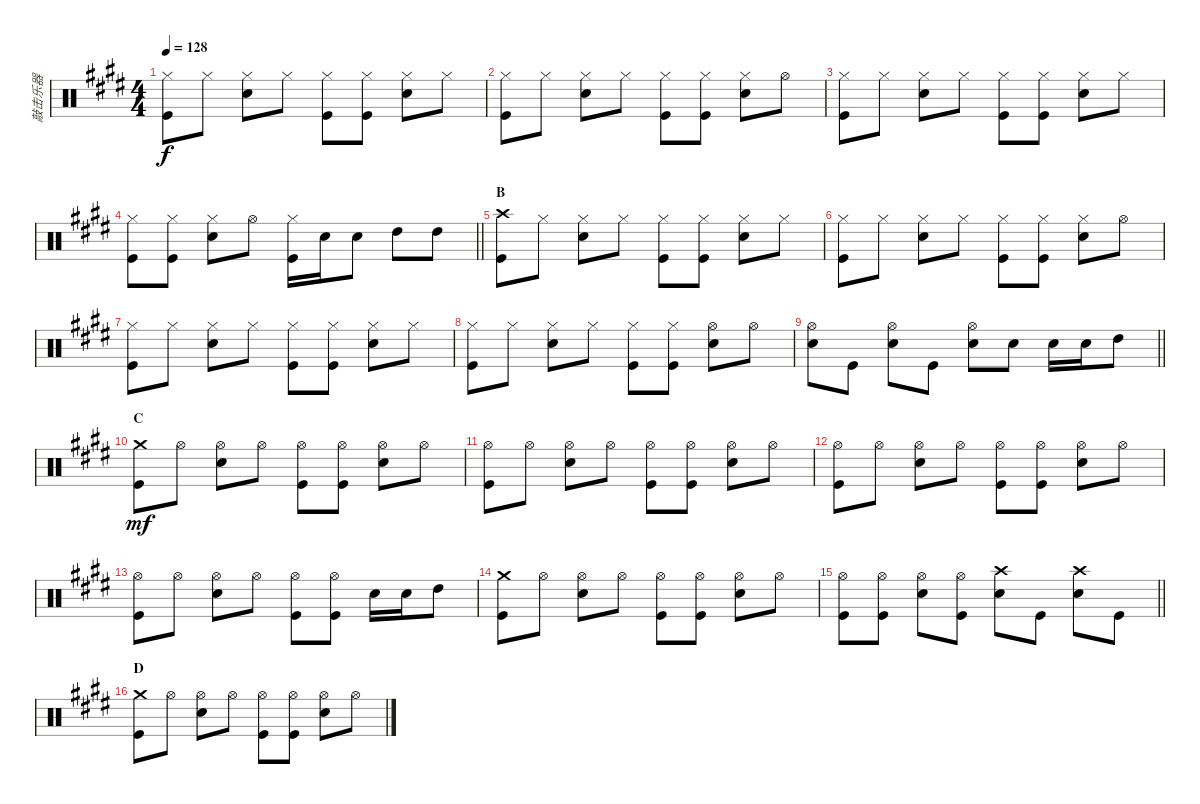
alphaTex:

\track ("敲击乐器" "敲击乐器") {instrument percussion}
\staff {score}
\articulation defaults
\ts (4 4)
\tempo 128
\clef neutral
\ks e
("Hi-Hat (closed)" "Kick (hit)").8{dy f} "Hi-Hat (closed)".8 ("Hi-Hat (closed)" "Snare (hit) 2").8 "Hi-Hat (closed)".8 ("Hi-Hat (closed)" "Kick (hit)").8 ("Hi-Hat (closed)" "Kick (hit)").8 ("Hi-Hat (closed)" "Snare (hit) 2").8 "Hi-Hat (closed)".8 |
("Hi-Hat (closed)" "Kick (hit)").8 "Hi-Hat (closed)".8 ("Hi-Hat (closed)" "Snare (hit) 2").8 "Hi-Hat (closed)".8 ("Hi-Hat (closed)" "Kick (hit)").8 ("Hi-Hat (closed)" "Kick (hit)").8 ("Hi-Hat (closed)" "Snare (hit) 2").8 "Hi-Hat (open)".8 |
("Hi-Hat (closed)" "Kick (hit)").8 "Hi-Hat (closed)".8 ("Hi-Hat (closed)" "Snare (hit) 2").8 "Hi-Hat (closed)".8 ("Hi-Hat (closed)" "Kick (hit)").8 ("Hi-Hat (closed)" "Kick (hit)").8 ("Hi-Hat (closed)" "Snare (hit) 2").8 "Hi-Hat (closed)".8 |
\barLineRight lightlight
("Hi-Hat (closed)" "Kick (hit)").8 ("Hi-Hat (closed)" "Kick (hit)").8 ("Hi-Hat (closed)" "Snare (hit) 2").8 "Hi-Hat (open)".8 ("Hi-Hat (closed)" "Kick (hit)").16 "Snare (hit) 2".16 "Snare (hit) 2".8 "High Tom (hit)".8 "High Tom (hit)".8 |
\section ("" "B")
("Crash high (hit)" "Kick (hit)").8 "Hi-Hat (closed)".8 ("Hi-Hat (closed)" "Snare (hit) 2").8 "Hi-Hat (closed)".8 ("Hi-Hat (closed)" "Kick (hit)").8 ("Hi-Hat (closed)" "Kick (hit)").8 ("Hi-Hat (closed)" "Snare (hit) 2").8 "Hi-Hat (closed)".8 |
("Hi-Hat (closed)" "Kick (hit)").8 "Hi-Hat (closed)".8 ("Hi-Hat (closed)" "Snare (hit) 2").8 "Hi-Hat (closed)".8 ("Hi-Hat (closed)" "Kick (hit)").8 ("Hi-Hat (closed)" "Kick (hit)").8 ("Hi-Hat (closed)" "Snare (hit) 2").8 "Hi-Hat (open)".8 |
("Hi-Hat (closed)" "Kick (hit)").8 "Hi-Hat (closed)".8 ("Hi-Hat (closed)" "Snare (hit) 2").8 "Hi-Hat (closed)".8 ("Hi-Hat (closed)" "Kick (hit)").8 ("Hi-Hat (closed)" "Kick (hit)").8 ("Hi-Hat (closed)" "Snare (hit) 2").8 "Hi-Hat (closed)".8 |
("Hi-Hat (closed)" "Kick (hit)").8 "Hi-Hat (closed)".8 ("Hi-Hat (closed)" "Snare (hit) 2").8 "Hi-Hat (closed)".8 ("Hi-Hat (closed)" "Kick (hit)").8 ("Hi-Hat (closed)" "Kick (hit)").8 ("Hi-Hat (open)" "Snare (hit) 2").8 "Hi-Hat (open)".8 |
\barLineRight lightlight
("Hi-Hat (open)" "Snare (hit) 2").8 "Kick (hit)".8 ("Hi-Hat (open)" "Snare (hit) 2").8 "Kick (hit)".8 ("Hi-Hat (open)" "Snare (hit) 2").8 "Snare (hit) 2".8 "Snare (hit) 2".16 "Snare (hit) 2".16 "High Tom (hit)".8 |
\section ("" "C")
("Crash medium (hit)" "Kick (hit)").8{dy mf} "Hi-Hat (open)".8 ("Hi-Hat (open)" "Snare (hit) 2").8 "Hi-Hat (open)".8 ("Hi-Hat (open)" "Kick (hit)").8 ("Hi-Hat (open)" "Kick (hit)").8 ("Hi-Hat (open)" "Snare (hit) 2").8 "Hi-Hat (open)".8 |
("Hi-Hat (open)" "Kick (hit)").8 "Hi-Hat (open)".8 ("Hi-Hat (open)" "Snare (hit) 2").8 "Hi-Hat (open)".8 ("Hi-Hat (open)" "Kick (hit)").8 ("Hi-Hat (open)" "Kick (hit)").8 ("Hi-Hat (open)" "Snare (hit) 2").8 "Hi-Hat (open)".8 |
("Hi-Hat (open)" "Kick (hit)").8 "Hi-Hat (open)".8 ("Hi-Hat (open)" "Snare (hit) 2").8 "Hi-Hat (open)".8 ("Hi-Hat (open)" "Kick (hit)").8 ("Hi-Hat (open)" "Kick (hit)").8 ("Hi-Hat (open)" "Snare (hit) 2").8 "Hi-Hat (open)".8 |
("Hi-Hat (open)" "Kick (hit)").8 "Hi-Hat (open)".8 ("Hi-Hat (open)" "Snare (hit) 2").8 "Hi-Hat (open)".8 ("Hi-Hat (open)" "Kick (hit)").8 ("Hi-Hat (open)" "Kick (hit)").8 "Snare (hit) 2".16 "Snare (hit) 2".16 "High Tom (hit)".8 |
("Crash medium (hit)" "Kick (hit)").8 "Hi-Hat (open)".8 ("Hi-Hat (open)" "Snare (hit) 2").8 "Hi-Hat (open)".8 ("Hi-Hat (open)" "Kick (hit)").8 ("Hi-Hat (open)" "Kick (hit)").8 ("Hi-Hat (open)" "Snare (hit) 2").8 "Hi-Hat (open)".8 |
\barLineRight lightlight
("Hi-Hat (open)" "Kick (hit)").8 ("Hi-Hat (open)" "Kick (hit)").8 ("Hi-Hat (open)" "Snare (hit) 2").8 ("Hi-Hat (open)" "Kick (hit)").8 ("Crash high (hit)" "Snare (hit) 2").8 "Kick (hit)".8 ("Crash high (hit)" "Snare (hit) 2").8 "Kick (hit)".8 |
\section ("" "D")
("Crash medium (hit)" "Kick (hit)").8 "Hi-Hat (open)".8 ("Hi-Hat (open)" "Snare (hit) 2").8 "Hi-Hat (open)".8 ("Hi-Hat (open)" "Kick (hit)").8 ("Hi-Hat (open)" "Kick (hit)").8 ("Hi-Hat (open)" "Snare (hit) 2").8 "Hi-Hat (open)".8
